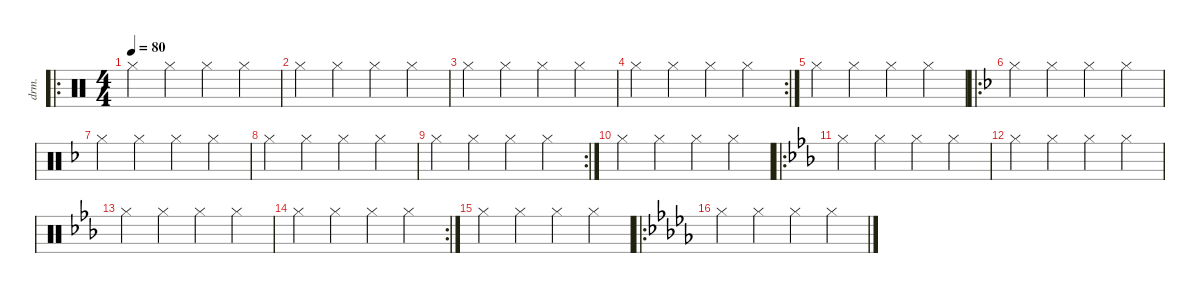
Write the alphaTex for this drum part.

\defaultSystemsLayout 4
\hideDynamics
\bracketExtendMode nobrackets
\track ("Drumkit" "drm.") {instrument percussion}
\staff {score}
\articulation defaults
\ro
\ts (4 4)
\tempo 80
\clef neutral
\ks c "Hi-Hat (closed)".4{dy mf} "Hi-Hat (closed)".4 "Hi-Hat (closed)".4 "Hi-Hat (closed)".4
|
"Hi-Hat (closed)".4 "Hi-Hat (closed)".4 "Hi-Hat (closed)".4 "Hi-Hat (closed)".4 |
"Hi-Hat (closed)".4 "Hi-Hat (closed)".4 "Hi-Hat (closed)".4 "Hi-Hat (closed)".4 |
\rc 2 "Hi-Hat (closed)".4 "Hi-Hat (closed)".4 "Hi-Hat (closed)".4 "Hi-Hat (closed)".4
|
"Hi-Hat (closed)".4 "Hi-Hat (closed)".4 "Hi-Hat (closed)".4 "Hi-Hat (closed)".4 |
\ro
\ks f "Hi-Hat (closed)"{acc forcenatural}.4 "Hi-Hat (closed)"{acc forcenatural}.4 "Hi-Hat (closed)"{acc forcenatural}.4 "Hi-Hat (closed)"{acc forcenatural}.4
|
"Hi-Hat (closed)"{acc forcenatural}.4 "Hi-Hat (closed)"{acc forcenatural}.4 "Hi-Hat (closed)"{acc forcenatural}.4 "Hi-Hat (closed)"{acc forcenatural}.4 |
"Hi-Hat (closed)"{acc forcenatural}.4 "Hi-Hat (closed)"{acc forcenatural}.4 "Hi-Hat (closed)"{acc forcenatural}.4 "Hi-Hat (closed)"{acc forcenatural}.4 |
\rc 2 "Hi-Hat (closed)"{acc forcenatural}.4 "Hi-Hat (closed)"{acc forcenatural}.4 "Hi-Hat (closed)"{acc forcenatural}.4 "Hi-Hat (closed)"{acc forcenatural}.4
|
"Hi-Hat (closed)"{acc forcenatural}.4 "Hi-Hat (closed)"{acc forcenatural}.4 "Hi-Hat (closed)"{acc forcenatural}.4 "Hi-Hat (closed)"{acc forcenatural}.4 |
\ro
\ks cminor "Hi-Hat (closed)"{acc forcenatural}.4 "Hi-Hat (closed)"{acc forcenatural}.4 "Hi-Hat (closed)"{acc forcenatural}.4 "Hi-Hat (closed)"{acc forcenatural}.4
|
"Hi-Hat (closed)"{acc forcenatural}.4 "Hi-Hat (closed)"{acc forcenatural}.4 "Hi-Hat (closed)"{acc forcenatural}.4 "Hi-Hat (closed)"{acc forcenatural}.4 |
"Hi-Hat (closed)"{acc forcenatural}.4 "Hi-Hat (closed)"{acc forcenatural}.4 "Hi-Hat (closed)"{acc forcenatural}.4 "Hi-Hat (closed)"{acc forcenatural}.4 |
\rc 2 "Hi-Hat (closed)"{acc forcenatural}.4 "Hi-Hat (closed)"{acc forcenatural}.4 "Hi-Hat (closed)"{acc forcenatural}.4 "Hi-Hat (closed)"{acc forcenatural}.4
|
"Hi-Hat (closed)"{acc forcenatural}.4 "Hi-Hat (closed)"{acc forcenatural}.4 "Hi-Hat (closed)"{acc forcenatural}.4 "Hi-Hat (closed)"{acc forcenatural}.4 |
\ro
\ks db "Hi-Hat (closed)"{acc forcenatural}.4 "Hi-Hat (closed)"{acc forcenatural}.4 "Hi-Hat (closed)"{acc forcenatural}.4 "Hi-Hat (closed)"{acc forcenatural}.4
